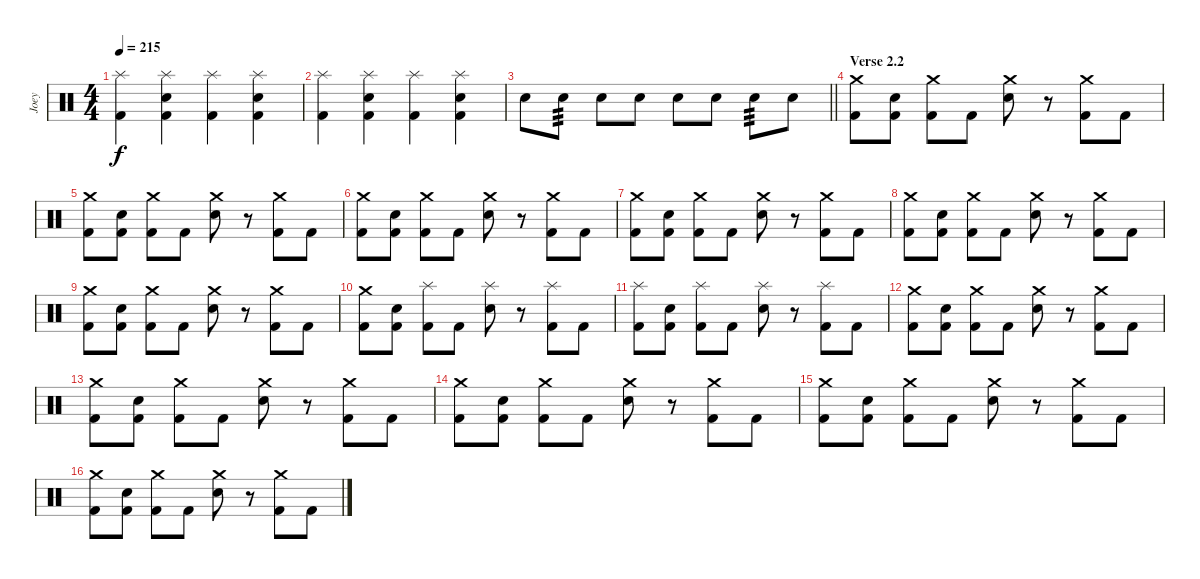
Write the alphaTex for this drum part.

\track ("Joey" "Joey") {instrument percussion}
\staff {score}
\articulation defaults
\ts (4 4)
\tempo 215
\clef neutral
\ks c
("Splash (hit)" "Kick (hit) 2").4{dy f} ("Splash (hit)" "Electric Snare (hit)" "Kick (hit) 2").4 ("Splash (hit)" "Kick (hit) 2").4 ("Splash (hit)" "Electric Snare (hit)" "Kick (hit) 2").4 |
("Splash (hit)" "Kick (hit) 2").4 ("Splash (hit)" "Electric Snare (hit)" "Kick (hit) 2").4 ("Splash (hit)" "Kick (hit) 2").4 ("Splash (hit)" "Electric Snare (hit)" "Kick (hit) 2").4 |
\barLineRight lightlight "Electric Snare (hit)".8 "Electric Snare (hit)".8{tp 3} "Electric Snare (hit)".8 "Electric Snare (hit)".8 "Electric Snare (hit)".8 "Electric Snare (hit)".8 "Electric Snare (hit)".8{tp 3} "Electric Snare (hit)".8
|
\section ("" "Verse 2.2")
("Crash medium (hit)" "Kick (hit) 2").8 ("Electric Snare (hit)" "Kick (hit) 2").8 ("Crash medium (hit)" "Kick (hit) 2").8 "Kick (hit) 2".8 ("Crash medium (hit)" "Electric Snare (hit)").8 r.8 ("Crash medium (hit)" "Kick (hit) 2").8 "Kick (hit) 2".8 |
("Crash medium (hit)" "Kick (hit) 2").8 ("Electric Snare (hit)" "Kick (hit) 2").8 ("Crash medium (hit)" "Kick (hit) 2").8 "Kick (hit) 2".8 ("Crash medium (hit)" "Electric Snare (hit)").8 r.8 ("Crash medium (hit)" "Kick (hit) 2").8 "Kick (hit) 2".8 |
("Crash medium (hit)" "Kick (hit) 2").8 ("Electric Snare (hit)" "Kick (hit) 2").8 ("Crash medium (hit)" "Kick (hit) 2").8 "Kick (hit) 2".8 ("Crash medium (hit)" "Electric Snare (hit)").8 r.8 ("Crash medium (hit)" "Kick (hit) 2").8 "Kick (hit) 2".8 |
("Crash medium (hit)" "Kick (hit) 2").8 ("Electric Snare (hit)" "Kick (hit) 2").8 ("Crash medium (hit)" "Kick (hit) 2").8 "Kick (hit) 2".8 ("Crash medium (hit)" "Electric Snare (hit)").8 r.8 ("Crash medium (hit)" "Kick (hit) 2").8 "Kick (hit) 2".8 |
("Crash medium (hit)" "Kick (hit) 2").8 ("Electric Snare (hit)" "Kick (hit) 2").8 ("Crash medium (hit)" "Kick (hit) 2").8 "Kick (hit) 2".8 ("Crash medium (hit)" "Electric Snare (hit)").8 r.8 ("Crash medium (hit)" "Kick (hit) 2").8 "Kick (hit) 2".8 |
("Crash medium (hit)" "Kick (hit) 2").8 ("Electric Snare (hit)" "Kick (hit) 2").8 ("Crash medium (hit)" "Kick (hit) 2").8 "Kick (hit) 2".8 ("Crash medium (hit)" "Electric Snare (hit)").8 r.8 ("Crash medium (hit)" "Kick (hit) 2").8 "Kick (hit) 2".8 |
("Crash medium (hit)" "Kick (hit) 2").8 ("Electric Snare (hit)" "Kick (hit) 2").8 ("Splash (hit)" "Kick (hit) 2").8 "Kick (hit) 2".8 ("Splash (hit)" "Electric Snare (hit)").8 r.8 ("Splash (hit)" "Kick (hit) 2").8 "Kick (hit) 2".8 |
("Splash (hit)" "Kick (hit) 2").8 ("Electric Snare (hit)" "Kick (hit) 2").8 ("Splash (hit)" "Kick (hit) 2").8 "Kick (hit) 2".8 ("Splash (hit)" "Electric Snare (hit)").8 r.8 ("Splash (hit)" "Kick (hit) 2").8 "Kick (hit) 2".8 |
("Crash medium (hit)" "Kick (hit) 2").8 ("Electric Snare (hit)" "Kick (hit) 2").8 ("Crash medium (hit)" "Kick (hit) 2").8 "Kick (hit) 2".8 ("Crash medium (hit)" "Electric Snare (hit)").8 r.8 ("Crash medium (hit)" "Kick (hit) 2").8 "Kick (hit) 2".8 |
("Crash medium (hit)" "Kick (hit) 2").8 ("Electric Snare (hit)" "Kick (hit) 2").8 ("Crash medium (hit)" "Kick (hit) 2").8 "Kick (hit) 2".8 ("Crash medium (hit)" "Electric Snare (hit)").8 r.8 ("Crash medium (hit)" "Kick (hit) 2").8 "Kick (hit) 2".8 |
("Crash medium (hit)" "Kick (hit) 2").8 ("Electric Snare (hit)" "Kick (hit) 2").8 ("Crash medium (hit)" "Kick (hit) 2").8 "Kick (hit) 2".8 ("Crash medium (hit)" "Electric Snare (hit)").8 r.8 ("Crash medium (hit)" "Kick (hit) 2").8 "Kick (hit) 2".8 |
("Crash medium (hit)" "Kick (hit) 2").8 ("Electric Snare (hit)" "Kick (hit) 2").8 ("Crash medium (hit)" "Kick (hit) 2").8 "Kick (hit) 2".8 ("Crash medium (hit)" "Electric Snare (hit)").8 r.8 ("Crash medium (hit)" "Kick (hit) 2").8 "Kick (hit) 2".8 |
("Crash medium (hit)" "Kick (hit) 2").8 ("Electric Snare (hit)" "Kick (hit) 2").8 ("Crash medium (hit)" "Kick (hit) 2").8 "Kick (hit) 2".8 ("Crash medium (hit)" "Electric Snare (hit)").8 r.8 ("Crash medium (hit)" "Kick (hit) 2").8 "Kick (hit) 2".8
